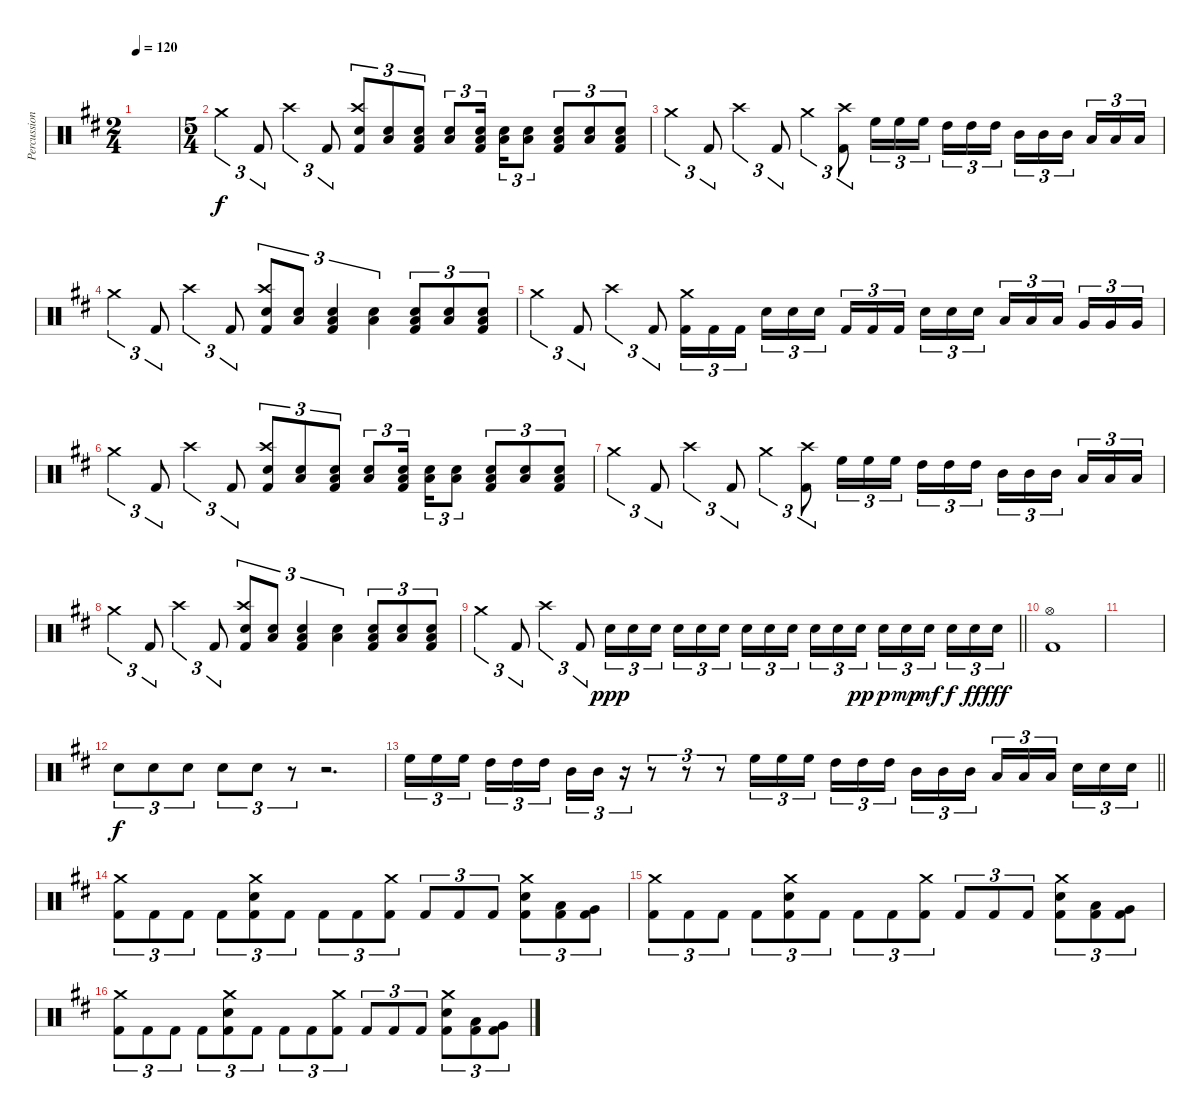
\track ("Percussion" "Percussion") {instrument percussion}
\staff {score}
\articulation defaults
\ts (2 4)
\tempo 120
\clef neutral
\ks bminor
|
\ts (5 4)
"Crash medium (hit)".4{tu (3 2)} "Kick (hit) 2".8{tu (3 2)} "Crash high (hit)".4{tu (3 2)} "Kick (hit) 2".8{tu (3 2)} ("Crash high (hit)" "Electric Snare (hit)" "Kick (hit) 2").8{tu (3 2)} ("Electric Snare (hit)" "Low Floor Tom (hit)").8{tu (3 2)} ("Electric Snare (hit)" "Low Floor Tom (hit)" "Kick (hit) 2").8{tu (3 2)} ("Electric Snare (hit)" "Low Floor Tom (hit)").8{tu (3 2)} ("Electric Snare (hit)" "Low Floor Tom (hit)" "Kick (hit) 2").16{tu (3 2)} ("Electric Snare (hit)" "Low Floor Tom (hit)").16{tu (3 2)} ("Electric Snare (hit)" "Low Floor Tom (hit)").8{tu (3 2)} ("Electric Snare (hit)" "Low Floor Tom (hit)" "Kick (hit) 2").8{tu (3 2)} ("Electric Snare (hit)" "Low Floor Tom (hit)").8{tu (3 2)} ("Electric Snare (hit)" "Low Floor Tom (hit)" "Kick (hit) 2").8{tu (3 2)} |
"Crash medium (hit)".4{tu (3 2)} "Kick (hit) 2".8{tu (3 2)} "Crash high (hit)".4{tu (3 2)} "Kick (hit) 2".8{tu (3 2)} "Crash medium (hit)".4{tu (3 2)} ("Crash high (hit)" "Kick (hit) 2").8{tu (3 2)} "High Floor Tom (hit)".16{tu (3 2)} "High Floor Tom (hit)".16{tu (3 2)} "High Floor Tom (hit)".16{tu (3 2)} "High Tom (hit)".16{tu (3 2)} "High Tom (hit)".16{tu (3 2)} "High Tom (hit)".16{tu (3 2)} "Mid Tom (hit)".16{tu (3 2)} "Mid Tom (hit)".16{tu (3 2)} "Mid Tom (hit)".16{tu (3 2)} "Low Tom (hit)".16{tu (3 2)} "Low Tom (hit)".16{tu (3 2)} "Low Tom (hit)".16{tu (3 2)} |
"Crash medium (hit)".4{tu (3 2)} "Kick (hit) 2".8{tu (3 2)} "Crash high (hit)".4{tu (3 2)} "Kick (hit) 2".8{tu (3 2)} ("Crash high (hit)" "Electric Snare (hit)" "Kick (hit) 2").8{tu (3 2)} ("Electric Snare (hit)" "Low Floor Tom (hit)").8{tu (3 2)} ("Electric Snare (hit)" "Low Floor Tom (hit)" "Kick (hit) 2").4{tu (3 2)} ("Electric Snare (hit)" "Low Floor Tom (hit)").4{tu (3 2)} ("Electric Snare (hit)" "Low Floor Tom (hit)" "Kick (hit) 2").8{tu (3 2)} ("Electric Snare (hit)" "Low Floor Tom (hit)").8{tu (3 2)} ("Electric Snare (hit)" "Low Floor Tom (hit)" "Kick (hit) 2").8{tu (3 2)} |
"Crash medium (hit)".4{tu (3 2)} "Kick (hit) 2".8{tu (3 2)} "Crash high (hit)".4{tu (3 2)} "Kick (hit) 2".8{tu (3 2)} ("Crash medium (hit)" "Kick (hit) 2").16{tu (3 2)} "Kick (hit) 2".16{tu (3 2)} "Kick (hit) 2".16{tu (3 2)} "Electric Snare (hit)".16{tu (3 2)} "Electric Snare (hit)".16{tu (3 2)} "Electric Snare (hit)".16{tu (3 2)} "Kick (hit) 2".16{tu (3 2)} "Kick (hit) 2".16{tu (3 2)} "Kick (hit) 2".16{tu (3 2)} "Electric Snare (hit)".16{tu (3 2)} "Electric Snare (hit)".16{tu (3 2)} "Electric Snare (hit)".16{tu (3 2)} "Low Tom (hit)".16{tu (3 2)} "Low Tom (hit)".16{tu (3 2)} "Low Tom (hit)".16{tu (3 2)} "Very Low Tom (hit)".16{tu (3 2)} "Very Low Tom (hit)".16{tu (3 2)} "Very Low Tom (hit)".16{tu (3 2)} |
"Crash medium (hit)".4{tu (3 2)} "Kick (hit) 2".8{tu (3 2)} "Crash high (hit)".4{tu (3 2)} "Kick (hit) 2".8{tu (3 2)} ("Crash high (hit)" "Electric Snare (hit)" "Kick (hit) 2").8{tu (3 2)} ("Electric Snare (hit)" "Low Floor Tom (hit)").8{tu (3 2)} ("Electric Snare (hit)" "Low Floor Tom (hit)" "Kick (hit) 2").8{tu (3 2)} ("Electric Snare (hit)" "Low Floor Tom (hit)").8{tu (3 2)} ("Electric Snare (hit)" "Low Floor Tom (hit)" "Kick (hit) 2").16{tu (3 2)} ("Electric Snare (hit)" "Low Floor Tom (hit)").16{tu (3 2)} ("Electric Snare (hit)" "Low Floor Tom (hit)").8{tu (3 2)} ("Electric Snare (hit)" "Low Floor Tom (hit)" "Kick (hit) 2").8{tu (3 2)} ("Electric Snare (hit)" "Low Floor Tom (hit)").8{tu (3 2)} ("Electric Snare (hit)" "Low Floor Tom (hit)" "Kick (hit) 2").8{tu (3 2)} |
"Crash medium (hit)".4{tu (3 2)} "Kick (hit) 2".8{tu (3 2)} "Crash high (hit)".4{tu (3 2)} "Kick (hit) 2".8{tu (3 2)} "Crash medium (hit)".4{tu (3 2)} ("Crash high (hit)" "Kick (hit) 2").8{tu (3 2)} "High Floor Tom (hit)".16{tu (3 2)} "High Floor Tom (hit)".16{tu (3 2)} "High Floor Tom (hit)".16{tu (3 2)} "High Tom (hit)".16{tu (3 2)} "High Tom (hit)".16{tu (3 2)} "High Tom (hit)".16{tu (3 2)} "Mid Tom (hit)".16{tu (3 2)} "Mid Tom (hit)".16{tu (3 2)} "Mid Tom (hit)".16{tu (3 2)} "Low Tom (hit)".16{tu (3 2)} "Low Tom (hit)".16{tu (3 2)} "Low Tom (hit)".16{tu (3 2)} |
"Crash medium (hit)".4{tu (3 2)} "Kick (hit) 2".8{tu (3 2)} "Crash high (hit)".4{tu (3 2)} "Kick (hit) 2".8{tu (3 2)} ("Crash high (hit)" "Electric Snare (hit)" "Kick (hit) 2").8{tu (3 2)} ("Electric Snare (hit)" "Low Floor Tom (hit)").8{tu (3 2)} ("Electric Snare (hit)" "Low Floor Tom (hit)" "Kick (hit) 2").4{tu (3 2)} ("Electric Snare (hit)" "Low Floor Tom (hit)").4{tu (3 2)} ("Electric Snare (hit)" "Low Floor Tom (hit)" "Kick (hit) 2").8{tu (3 2)} ("Electric Snare (hit)" "Low Floor Tom (hit)").8{tu (3 2)} ("Electric Snare (hit)" "Low Floor Tom (hit)" "Kick (hit) 2").8{tu (3 2)} |
\barLineRight lightlight "Crash medium (hit)".4{tu (3 2)} "Kick (hit) 2".8{tu (3 2)} "Crash high (hit)".4{tu (3 2)} "Kick (hit) 2".8{tu (3 2)} "Electric Snare (hit)".16{tu (3 2) dy ppp} "Electric Snare (hit)".16{tu (3 2)} "Electric Snare (hit)".16{tu (3 2)} "Electric Snare (hit)".16{tu (3 2)} "Electric Snare (hit)".16{tu (3 2)} "Electric Snare (hit)".16{tu (3 2)} "Electric Snare (hit)".16{tu (3 2)} "Electric Snare (hit)".16{tu (3 2)} "Electric Snare (hit)".16{tu (3 2)} "Electric Snare (hit)".16{tu (3 2)} "Electric Snare (hit)".16{tu (3 2)} "Electric Snare (hit)".16{tu (3 2) dy pp} "Electric Snare (hit)".16{tu (3 2) dy p} "Electric Snare (hit)".16{tu (3 2) dy mp} "Electric Snare (hit)".16{tu (3 2) dy mf} "Electric Snare (hit)".16{tu (3 2) dy f} "Electric Snare (hit)".16{tu (3 2) dy ff} "Electric Snare (hit)".16{tu (3 2) dy fff}
|
\section ("" "")
("Hi-Hat (open)" "Kick (hit) 2").1 |
|
"Electric Snare (hit)".8{tu (3 2) dy f} "Electric Snare (hit)".8{tu (3 2)} "Electric Snare (hit)".8{tu (3 2)} "Electric Snare (hit)".8{tu (3 2)} "Electric Snare (hit)".8{tu (3 2)} r.8{tu (3 2)} r.2{d} |
\barLineRight lightlight "High Floor Tom (hit)".16{tu (3 2)} "High Floor Tom (hit)".16{tu (3 2)} "High Floor Tom (hit)".16{tu (3 2)} "High Tom (hit)".16{tu (3 2)} "High Tom (hit)".16{tu (3 2)} "High Tom (hit)".16{tu (3 2)} "Mid Tom (hit)".16{tu (3 2)} "Mid Tom (hit)".16{tu (3 2)}
r.16{tu (3 2)} r.8{tu (3 2)} r.8{tu (3 2)} r.8{tu (3 2)} "High Floor Tom (hit)".16{tu (3 2)} "High Floor Tom (hit)".16{tu (3 2)} "High Floor Tom (hit)".16{tu (3 2)} "High Tom (hit)".16{tu (3 2)} "High Tom (hit)".16{tu (3 2)} "High Tom (hit)".16{tu (3 2)} "Mid Tom (hit)".16{tu (3 2)} "Mid Tom (hit)".16{tu (3 2)} "Mid Tom (hit)".16{tu (3 2)} "Low Tom (hit)".16{tu (3 2)} "Low Tom (hit)".16{tu (3 2)} "Low Tom (hit)".16{tu (3 2)} "Electric Snare (hit)".16{tu (3 2)} "Electric Snare (hit)".16{tu (3 2)} "Electric Snare (hit)".16{tu (3 2)} |
\section ("" "")
("Crash medium (hit)" "Kick (hit) 2").8{tu (3 2)} "Kick (hit) 2".8{tu (3 2)} "Kick (hit) 2".8{tu (3 2)} "Kick (hit) 2".8{tu (3 2)} ("Crash medium (hit)" "Electric Snare (hit)" "Kick (hit) 2").8{tu (3 2)} "Kick (hit) 2".8{tu (3 2)} "Kick (hit) 2".8{tu (3 2)} "Kick (hit) 2".8{tu (3 2)} ("Crash medium (hit)" "Kick (hit) 2").8{tu (3 2)} "Kick (hit) 2".8{tu (3 2)} "Kick (hit) 2".8{tu (3 2)} "Kick (hit) 2".8{tu (3 2)} ("Crash medium (hit)" "Electric Snare (hit)" "Kick (hit) 2").8{tu (3 2)} ("Low Tom (hit)" "Kick (hit) 2").8{tu (3 2)} ("Very Low Tom (hit)" "Kick (hit) 2").8{tu (3 2)} |
("Crash medium (hit)" "Kick (hit) 2").8{tu (3 2)} "Kick (hit) 2".8{tu (3 2)} "Kick (hit) 2".8{tu (3 2)} "Kick (hit) 2".8{tu (3 2)} ("Crash medium (hit)" "Electric Snare (hit)" "Kick (hit) 2").8{tu (3 2)} "Kick (hit) 2".8{tu (3 2)} "Kick (hit) 2".8{tu (3 2)} "Kick (hit) 2".8{tu (3 2)} ("Crash medium (hit)" "Kick (hit) 2").8{tu (3 2)} "Kick (hit) 2".8{tu (3 2)} "Kick (hit) 2".8{tu (3 2)} "Kick (hit) 2".8{tu (3 2)} ("Crash medium (hit)" "Electric Snare (hit)" "Kick (hit) 2").8{tu (3 2)} ("Low Tom (hit)" "Kick (hit) 2").8{tu (3 2)} ("Very Low Tom (hit)" "Kick (hit) 2").8{tu (3 2)} |
("Crash medium (hit)" "Kick (hit) 2").8{tu (3 2)} "Kick (hit) 2".8{tu (3 2)} "Kick (hit) 2".8{tu (3 2)} "Kick (hit) 2".8{tu (3 2)} ("Crash medium (hit)" "Electric Snare (hit)" "Kick (hit) 2").8{tu (3 2)} "Kick (hit) 2".8{tu (3 2)} "Kick (hit) 2".8{tu (3 2)} "Kick (hit) 2".8{tu (3 2)} ("Crash medium (hit)" "Kick (hit) 2").8{tu (3 2)} "Kick (hit) 2".8{tu (3 2)} "Kick (hit) 2".8{tu (3 2)} "Kick (hit) 2".8{tu (3 2)} ("Crash medium (hit)" "Electric Snare (hit)" "Kick (hit) 2").8{tu (3 2)} ("Low Tom (hit)" "Kick (hit) 2").8{tu (3 2)} ("Very Low Tom (hit)" "Kick (hit) 2").8{tu (3 2)}
